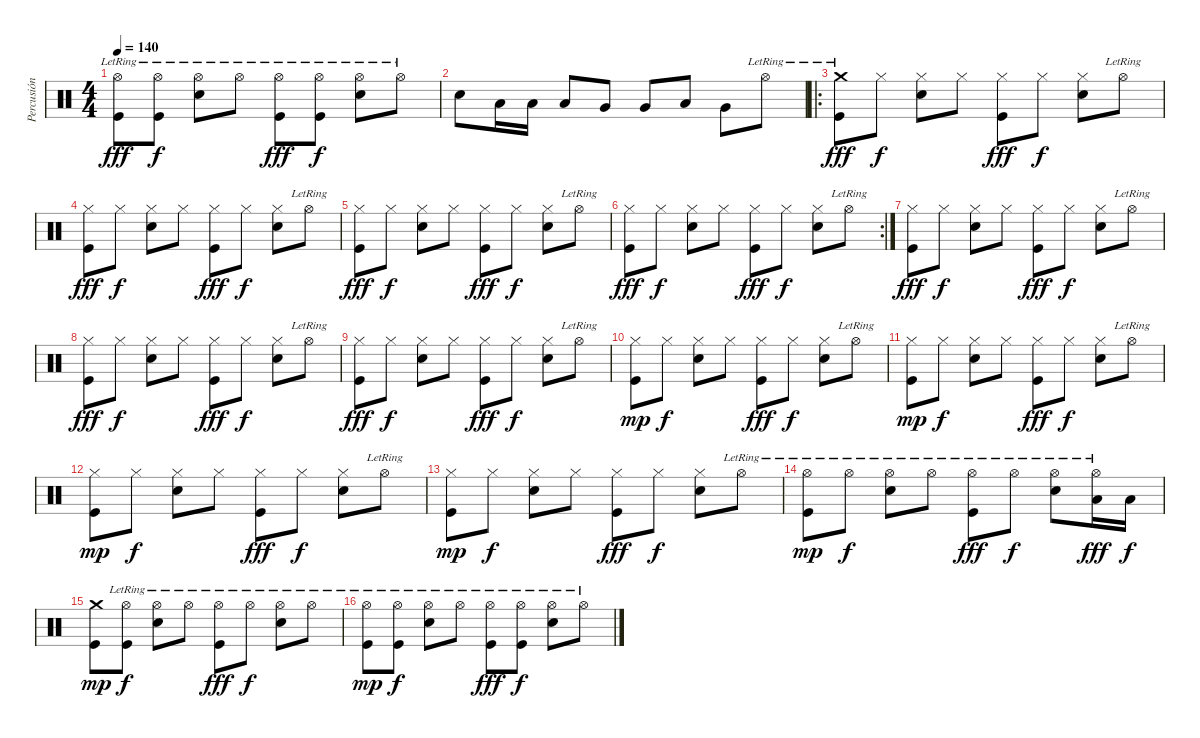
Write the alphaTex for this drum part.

\track ("Percusión" "Percusión") {instrument percussion}
\staff {score}
\articulation defaults
\ts (4 4)
\tempo 140
\clef neutral
\ks c
("Kick (hit)" "Hi-Hat (open)"{lr}).8{dy fff} ("Kick (hit)" "Hi-Hat (open)"{lr}).8{dy f} ("Snare (hit) 2" "Hi-Hat (open)"{lr}).8 "Hi-Hat (open)"{lr}.8 ("Kick (hit)" "Hi-Hat (open)"{lr}).8{dy fff} ("Kick (hit)" "Hi-Hat (open)"{lr}).8{dy f} ("Snare (hit) 2" "Hi-Hat (open)"{lr}).8 "Hi-Hat (open)"{lr}.8 |
"Snare (hit) 2".8 "Low Tom (hit)".16 "Low Tom (hit)".16 "Low Tom (hit)".8 "Very Low Tom (hit)".8 "Very Low Tom (hit)".8 "Low Floor Tom (hit)".8 "Very Low Tom (hit)".8 "Hi-Hat (open)"{lr}.8 |
\ro
("Kick (hit)" "Crash medium (hit)"{lr}).8{dy fff} "Hi-Hat (closed)".8{dy f} ("Snare (hit) 2" "Hi-Hat (closed)").8 "Hi-Hat (closed)".8 ("Kick (hit)" "Hi-Hat (closed)").8{dy fff} "Hi-Hat (closed)".8{dy f} ("Snare (hit) 2" "Hi-Hat (closed)").8 "Hi-Hat (open)"{lr}.8 |
("Kick (hit)" "Hi-Hat (closed)").8{dy fff} "Hi-Hat (closed)".8{dy f} ("Snare (hit) 2" "Hi-Hat (closed)").8 "Hi-Hat (closed)".8 ("Kick (hit)" "Hi-Hat (closed)").8{dy fff} "Hi-Hat (closed)".8{dy f} ("Snare (hit) 2" "Hi-Hat (closed)").8 "Hi-Hat (open)"{lr}.8 |
("Kick (hit)" "Hi-Hat (closed)").8{dy fff} "Hi-Hat (closed)".8{dy f} ("Snare (hit) 2" "Hi-Hat (closed)").8 "Hi-Hat (closed)".8 ("Kick (hit)" "Hi-Hat (closed)").8{dy fff} "Hi-Hat (closed)".8{dy f} ("Snare (hit) 2" "Hi-Hat (closed)").8 "Hi-Hat (open)"{lr}.8 |
\rc 2
("Kick (hit)" "Hi-Hat (closed)").8{dy fff} "Hi-Hat (closed)".8{dy f} ("Snare (hit) 2" "Hi-Hat (closed)").8 "Hi-Hat (closed)".8 ("Kick (hit)" "Hi-Hat (closed)").8{dy fff} "Hi-Hat (closed)".8{dy f} ("Snare (hit) 2" "Hi-Hat (closed)").8 "Hi-Hat (open)"{lr}.8 |
("Kick (hit)" "Hi-Hat (closed)").8{dy fff} "Hi-Hat (closed)".8{dy f} ("Snare (hit) 2" "Hi-Hat (closed)").8 "Hi-Hat (closed)".8 ("Kick (hit)" "Hi-Hat (closed)").8{dy fff} "Hi-Hat (closed)".8{dy f} ("Snare (hit) 2" "Hi-Hat (closed)").8 "Hi-Hat (open)"{lr}.8 |
("Kick (hit)" "Hi-Hat (closed)").8{dy fff} "Hi-Hat (closed)".8{dy f} ("Snare (hit) 2" "Hi-Hat (closed)").8 "Hi-Hat (closed)".8 ("Kick (hit)" "Hi-Hat (closed)").8{dy fff} "Hi-Hat (closed)".8{dy f} ("Snare (hit) 2" "Hi-Hat (closed)").8 "Hi-Hat (open)"{lr}.8 |
("Kick (hit)" "Hi-Hat (closed)").8{dy fff} "Hi-Hat (closed)".8{dy f} ("Snare (hit) 2" "Hi-Hat (closed)").8 "Hi-Hat (closed)".8 ("Kick (hit)" "Hi-Hat (closed)").8{dy fff} "Hi-Hat (closed)".8{dy f} ("Snare (hit) 2" "Hi-Hat (closed)").8 "Hi-Hat (open)"{lr}.8 |
("Kick (hit)" "Hi-Hat (closed)").8{dy mp} "Hi-Hat (closed)".8{dy f} ("Snare (hit) 2" "Hi-Hat (closed)").8 "Hi-Hat (closed)".8 ("Kick (hit)" "Hi-Hat (closed)").8{dy fff} "Hi-Hat (closed)".8{dy f} ("Snare (hit) 2" "Hi-Hat (closed)").8 "Hi-Hat (open)"{lr}.8 |
("Kick (hit)" "Hi-Hat (closed)").8{dy mp} "Hi-Hat (closed)".8{dy f} ("Snare (hit) 2" "Hi-Hat (closed)").8 "Hi-Hat (closed)".8 ("Kick (hit)" "Hi-Hat (closed)").8{dy fff} "Hi-Hat (closed)".8{dy f} ("Snare (hit) 2" "Hi-Hat (closed)").8 "Hi-Hat (open)"{lr}.8 |
("Kick (hit)" "Hi-Hat (closed)").8{dy mp} "Hi-Hat (closed)".8{dy f} ("Snare (hit) 2" "Hi-Hat (closed)").8 "Hi-Hat (closed)".8 ("Kick (hit)" "Hi-Hat (closed)").8{dy fff} "Hi-Hat (closed)".8{dy f} ("Snare (hit) 2" "Hi-Hat (closed)").8 "Hi-Hat (open)"{lr}.8 |
("Kick (hit)" "Hi-Hat (closed)").8{dy mp} "Hi-Hat (closed)".8{dy f} ("Snare (hit) 2" "Hi-Hat (closed)").8 "Hi-Hat (closed)".8 ("Kick (hit)" "Hi-Hat (closed)").8{dy fff} "Hi-Hat (closed)".8{dy f} ("Snare (hit) 2" "Hi-Hat (closed)").8 "Hi-Hat (open)"{lr}.8 |
("Kick (hit)" "Hi-Hat (open)"{lr}).8{dy mp} "Hi-Hat (open)"{lr}.8{dy f} ("Snare (hit) 2" "Hi-Hat (open)"{lr}).8 "Hi-Hat (open)"{lr}.8 ("Kick (hit)" "Hi-Hat (open)"{lr}).8{dy fff} "Hi-Hat (open)"{lr}.8{dy f} ("Snare (hit) 2" "Hi-Hat (open)"{lr}).8 ("Hi-Hat (open)"{lr} "Low Tom (hit)").16{dy fff} "Low Tom (hit)".16{dy f} |
("Kick (hit)" "Crash medium (hit)").8{dy mp} ("Kick (hit)" "Hi-Hat (open)"{lr}).8{dy f} ("Snare (hit) 2" "Hi-Hat (open)"{lr}).8 "Hi-Hat (open)"{lr}.8 ("Kick (hit)" "Hi-Hat (open)"{lr}).8{dy fff} "Hi-Hat (open)"{lr}.8{dy f} ("Snare (hit) 2" "Hi-Hat (open)"{lr}).8 "Hi-Hat (open)"{lr}.8 |
("Kick (hit)" "Hi-Hat (open)"{lr}).8{dy mp} ("Kick (hit)" "Hi-Hat (open)"{lr}).8{dy f} ("Snare (hit) 2" "Hi-Hat (open)"{lr}).8 "Hi-Hat (open)"{lr}.8 ("Kick (hit)" "Hi-Hat (open)"{lr}).8{dy fff} ("Kick (hit)" "Hi-Hat (open)"{lr}).8{dy f} ("Snare (hit) 2" "Hi-Hat (open)"{lr}).8 "Hi-Hat (open)"{lr}.8
